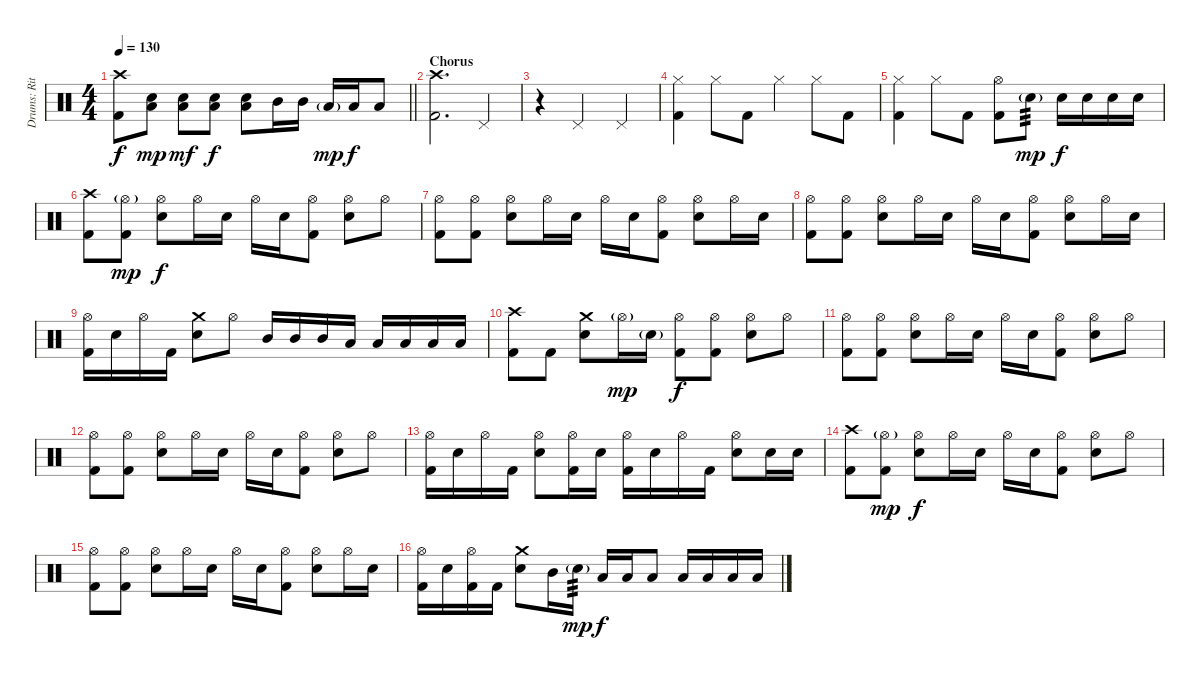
\track ("Drums: Ritsu Tainaka" "Drums: Rit") {instrument percussion}
\staff {score}
\articulation defaults
\ts (4 4)
\tempo 130
\clef neutral
\barLineRight lightlight
\ks c
("Crash high (hit)" "Kick (hit) 2").8{dy f} ("Electric Snare (hit)" "Low Floor Tom (hit)").8{dy mp} ("Electric Snare (hit)" "Low Floor Tom (hit)").8{dy mf} ("Electric Snare (hit)" "Low Floor Tom (hit)").8{dy f} ("Electric Snare (hit)" "Low Floor Tom (hit)").8 "Mid Tom (hit)".16 "Mid Tom (hit)".16 "Low Tom (hit)"{g}.16{dy mp} "Low Floor Tom (hit)".16{dy f} "Low Floor Tom (hit)".8 |
\section ("" "Chorus")
("Crash high (hit)" "Kick (hit) 2").2{d} "Pedal Hi-Hat (hit)".4 |
r.4 "Pedal Hi-Hat (hit)".2 "Pedal Hi-Hat (hit)".4 |
("Hi-Hat (closed)" "Kick (hit) 2").4 "Hi-Hat (closed)".8 "Kick (hit) 2".8 "Hi-Hat (closed)".4 "Hi-Hat (closed)".8 "Kick (hit) 2".8 |
("Hi-Hat (closed)" "Kick (hit) 2").4 "Hi-Hat (closed)".8 "Kick (hit) 2".8 ("Hi-Hat (open)" "Kick (hit) 2").8 "Electric Snare (hit)"{g}.8{tp 3 dy mp} "Electric Snare (hit)".16{dy f} "Electric Snare (hit)".16 "Electric Snare (hit)".16 "Electric Snare (hit)".16 |
("Crash high (hit)" "Kick (hit) 2").8 ("Hi-Hat (open)"{g} "Kick (hit) 2").8{dy mp} ("Hi-Hat (open)" "Electric Snare (hit)").8{dy f} "Hi-Hat (open)".16 "Electric Snare (hit)".16 "Hi-Hat (open)".16 "Electric Snare (hit)".16 ("Hi-Hat (open)" "Kick (hit) 2").8 ("Hi-Hat (open)" "Electric Snare (hit)").8 "Hi-Hat (open)".8 |
("Hi-Hat (open)" "Kick (hit) 2").8 ("Hi-Hat (open)" "Kick (hit) 2").8 ("Hi-Hat (open)" "Electric Snare (hit)").8 "Hi-Hat (open)".16 "Electric Snare (hit)".16 "Hi-Hat (open)".16 "Electric Snare (hit)".16 ("Hi-Hat (open)" "Kick (hit) 2").8 ("Hi-Hat (open)" "Electric Snare (hit)").8 "Hi-Hat (open)".16 "Electric Snare (hit)".16 |
("Hi-Hat (open)" "Kick (hit) 2").8 ("Hi-Hat (open)" "Kick (hit) 2").8 ("Hi-Hat (open)" "Electric Snare (hit)").8 "Hi-Hat (open)".16 "Electric Snare (hit)".16 "Hi-Hat (open)".16 "Electric Snare (hit)".16 ("Hi-Hat (open)" "Kick (hit) 2").8 ("Hi-Hat (open)" "Electric Snare (hit)").8 "Hi-Hat (open)".16 "Electric Snare (hit)".16 |
("Hi-Hat (open)" "Kick (hit) 2").16 "Electric Snare (hit)".16 "Hi-Hat (open)".16 "Kick (hit) 2".16 ("Crash medium (hit)" "Electric Snare (hit)").8 "Hi-Hat (open)".8 "Mid Tom (hit)".16 "Mid Tom (hit)".16 "Mid Tom (hit)".16 "Low Tom (hit)".16 "Low Tom (hit)".16 "Low Floor Tom (hit)".16 "Low Floor Tom (hit)".16 "Low Floor Tom (hit)".16 |
("Crash high (hit)" "Kick (hit) 2").8 "Kick (hit) 2".8 ("Crash medium (hit)" "Electric Snare (hit)").8 "Hi-Hat (open)"{g}.16{dy mp} "Electric Snare (hit)"{g}.16 ("Hi-Hat (open)" "Kick (hit) 2").8{dy f} ("Hi-Hat (open)" "Kick (hit) 2").8 ("Hi-Hat (open)" "Electric Snare (hit)").8 "Hi-Hat (open)".8 |
("Hi-Hat (open)" "Kick (hit) 2").8 ("Hi-Hat (open)" "Kick (hit) 2").8 ("Hi-Hat (open)" "Electric Snare (hit)").8 "Hi-Hat (open)".16 "Electric Snare (hit)".16 "Hi-Hat (open)".16 "Electric Snare (hit)".16 ("Hi-Hat (open)" "Kick (hit) 2").8 ("Hi-Hat (open)" "Electric Snare (hit)").8 "Hi-Hat (open)".8 |
("Hi-Hat (open)" "Kick (hit) 2").8 ("Hi-Hat (open)" "Kick (hit) 2").8 ("Hi-Hat (open)" "Electric Snare (hit)").8 "Hi-Hat (open)".16 "Electric Snare (hit)".16 "Hi-Hat (open)".16 "Electric Snare (hit)".16 ("Hi-Hat (open)" "Kick (hit) 2").8 ("Hi-Hat (open)" "Electric Snare (hit)").8 "Hi-Hat (open)".8 |
("Hi-Hat (open)" "Kick (hit) 2").16 "Electric Snare (hit)".16 "Hi-Hat (open)".16 "Kick (hit) 2".16 ("Hi-Hat (open)" "Electric Snare (hit)").8 ("Hi-Hat (open)" "Kick (hit) 2").16 "Electric Snare (hit)".16 ("Hi-Hat (open)" "Kick (hit) 2").16 "Electric Snare (hit)".16 "Hi-Hat (open)".16 "Kick (hit) 2".16 ("Hi-Hat (open)" "Electric Snare (hit)").8 "Electric Snare (hit)".16 "Electric Snare (hit)".16 |
("Crash high (hit)" "Kick (hit) 2").8 ("Hi-Hat (open)"{g} "Kick (hit) 2").8{dy mp} ("Hi-Hat (open)" "Electric Snare (hit)").8{dy f} "Hi-Hat (open)".16 "Electric Snare (hit)".16 "Hi-Hat (open)".16 "Electric Snare (hit)".16 ("Hi-Hat (open)" "Kick (hit) 2").8 ("Hi-Hat (open)" "Electric Snare (hit)").8 "Hi-Hat (open)".8 |
("Hi-Hat (open)" "Kick (hit) 2").8 ("Hi-Hat (open)" "Kick (hit) 2").8 ("Hi-Hat (open)" "Electric Snare (hit)").8 "Hi-Hat (open)".16 "Electric Snare (hit)".16 "Hi-Hat (open)".16 "Electric Snare (hit)".16 ("Hi-Hat (open)" "Kick (hit) 2").8 ("Hi-Hat (open)" "Electric Snare (hit)").8 "Hi-Hat (open)".16 "Electric Snare (hit)".16 |
("Hi-Hat (open)" "Kick (hit) 2").16 "Electric Snare (hit)".16 ("Hi-Hat (open)" "Kick (hit) 2").16 "Kick (hit) 2".16 ("Crash medium (hit)" "Electric Snare (hit)").8 "Mid Tom (hit)".16 "Electric Snare (hit)"{g}.16{tp 3 dy mp} "Low Tom (hit)".16{dy f} "Low Tom (hit)".16 "Low Tom (hit)".8 "Low Floor Tom (hit)".16 "Low Floor Tom (hit)".16 "Low Floor Tom (hit)".16 "Low Floor Tom (hit)".16
